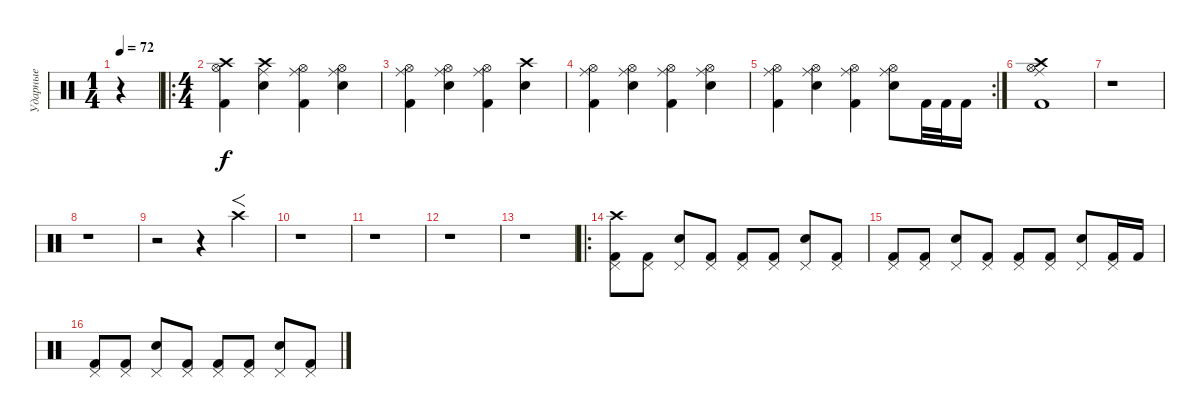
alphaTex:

\track ("Ударные" "Ударные") {instrument percussion}
\staff {score}
\articulation defaults
\ts (1 4)
\tempo 72
\clef neutral
\ks c
r.4{dy f} |
\ro
\ts (4 4)
("Crash high (hit)" "Hi-Hat (open)" "Kick (hit) 2").4 ("Crash high (hit)" "Ride (middle)" "Snare (hit) 2").4 ("Hi-Hat (open)" "Ride (middle)" "Kick (hit) 2").4 ("Hi-Hat (open)" "Ride (middle)" "Snare (hit) 2").4 |
("Hi-Hat (open)" "Ride (middle)" "Kick (hit) 2").4 ("Hi-Hat (open)" "Ride (middle)" "Snare (hit) 2").4 ("Hi-Hat (open)" "Ride (middle)" "Kick (hit) 2").4 ("Crash high (hit)" "Snare (hit) 2").4 |
("Hi-Hat (open)" "Ride (middle)" "Kick (hit) 2").4 ("Hi-Hat (open)" "Ride (middle)" "Snare (hit) 2").4 ("Hi-Hat (open)" "Ride (middle)" "Kick (hit) 2").4 ("Hi-Hat (open)" "Ride (middle)" "Snare (hit) 2").4 |
\rc 2
("Hi-Hat (open)" "Ride (middle)" "Kick (hit) 2").4 ("Hi-Hat (open)" "Ride (middle)" "Snare (hit) 2").4 ("Hi-Hat (open)" "Ride (middle)" "Kick (hit) 2").4 ("Hi-Hat (open)" "Ride (middle)" "Snare (hit) 2").8 "Kick (hit) 2".32 "Kick (hit) 2".32 "Kick (hit) 2".16 |
("Hi-Hat (open)" "Crash high (hit)" "Ride (middle)" "Kick (hit) 2").1 |
r.1 |
r.1 |
r.2 r.4 "Crash high (hit)".4{f} |
r.1 |
r.1 |
r.1 |
r.1 |
\ro
("Crash high (hit)" "Pedal Hi-Hat (hit)" "Kick (hit) 2").8 ("Pedal Hi-Hat (hit)" "Kick (hit) 2").8 ("Pedal Hi-Hat (hit)" "Snare (hit) 2").8 ("Pedal Hi-Hat (hit)" "Kick (hit) 2").8 ("Pedal Hi-Hat (hit)" "Kick (hit) 2").8 ("Pedal Hi-Hat (hit)" "Kick (hit) 2").8 ("Pedal Hi-Hat (hit)" "Snare (hit) 2").8 ("Pedal Hi-Hat (hit)" "Kick (hit) 2").8 |
("Pedal Hi-Hat (hit)" "Kick (hit) 2").8 ("Pedal Hi-Hat (hit)" "Kick (hit) 2").8 ("Pedal Hi-Hat (hit)" "Snare (hit) 2").8 ("Pedal Hi-Hat (hit)" "Kick (hit) 2").8 ("Pedal Hi-Hat (hit)" "Kick (hit) 2").8 ("Pedal Hi-Hat (hit)" "Kick (hit) 2").8 ("Pedal Hi-Hat (hit)" "Snare (hit) 2").8 ("Pedal Hi-Hat (hit)" "Kick (hit) 2").16 "Kick (hit) 2".16 |
("Pedal Hi-Hat (hit)" "Kick (hit) 2").8 ("Pedal Hi-Hat (hit)" "Kick (hit) 2").8 ("Pedal Hi-Hat (hit)" "Snare (hit) 2").8 ("Pedal Hi-Hat (hit)" "Kick (hit) 2").8 ("Pedal Hi-Hat (hit)" "Kick (hit) 2").8 ("Pedal Hi-Hat (hit)" "Kick (hit) 2").8 ("Pedal Hi-Hat (hit)" "Snare (hit) 2").8 ("Pedal Hi-Hat (hit)" "Kick (hit) 2").8
